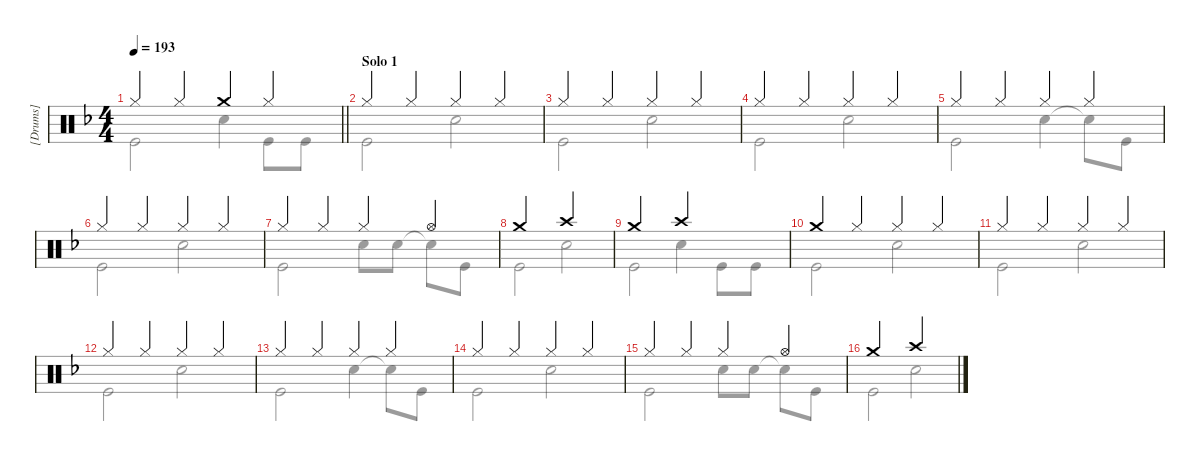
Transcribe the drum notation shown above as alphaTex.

\hideDynamics
\bracketExtendMode groupsimilarinstruments
\firstSystemTrackNameMode fullname
\otherSystemsTrackNameMode fullname
\otherSystemsTrackNameOrientation horizontal
\track ("[Drums]" "Drums") {instrument percussion}
\staff {score}
\articulation defaults
\voice
\ts (4 4)
\tempo 193
\clef neutral
\barLineRight lightlight
\ks f "Hi-Hat (closed)".4{dy ff} "Hi-Hat (closed)".4 "Crash medium (hit)".4 "Hi-Hat (closed)".4
|
\section ("" "Solo 1")
"Hi-Hat (closed)".4 "Hi-Hat (closed)".4 "Hi-Hat (closed)".4 "Hi-Hat (closed)".4 |
"Hi-Hat (closed)".4 "Hi-Hat (closed)".4 "Hi-Hat (closed)".4 "Hi-Hat (closed)".4 |
"Hi-Hat (closed)".4 "Hi-Hat (closed)".4 "Hi-Hat (closed)".4 "Hi-Hat (closed)".4 |
"Hi-Hat (closed)".4 "Hi-Hat (closed)".4 "Hi-Hat (closed)".4 "Hi-Hat (closed)".4 |
"Hi-Hat (closed)".4 "Hi-Hat (closed)".4 "Hi-Hat (closed)".4 "Hi-Hat (closed)".4 |
"Hi-Hat (closed)".4 "Hi-Hat (closed)".4 "Hi-Hat (closed)".4 "Hi-Hat (open)".4 |
"Crash medium (hit)".2 "Crash high (hit)".2 |
"Crash medium (hit)".2 "Crash high (hit)".2 |
"Crash medium (hit)".4 "Hi-Hat (closed)".4 "Hi-Hat (closed)".4 "Hi-Hat (closed)".4 |
"Hi-Hat (closed)".4 "Hi-Hat (closed)".4 "Hi-Hat (closed)".4 "Hi-Hat (closed)".4 |
"Hi-Hat (closed)".4 "Hi-Hat (closed)".4 "Hi-Hat (closed)".4 "Hi-Hat (closed)".4 |
"Hi-Hat (closed)".4 "Hi-Hat (closed)".4 "Hi-Hat (closed)".4 "Hi-Hat (closed)".4 |
"Hi-Hat (closed)".4 "Hi-Hat (closed)".4 "Hi-Hat (closed)".4 "Hi-Hat (closed)".4 |
"Hi-Hat (closed)".4 "Hi-Hat (closed)".4 "Hi-Hat (closed)".4 "Hi-Hat (open)".4 |
"Crash medium (hit)".2 "Crash high (hit)".2
\voice
\clef neutral
\ottava regular
\simile none
\barLineRight lightlight
\ks f "Kick (hit)".2{dy f} "Snare (hit) 2".4 "Kick (hit)".8 "Kick (hit)".8
|
"Kick (hit)".2 "Snare (hit) 2".2 |
"Kick (hit)".2 "Snare (hit) 2".2 |
"Kick (hit)".2 "Snare (hit) 2".2 |
"Kick (hit)".2 "Snare (hit) 2".4 "Snare (hit) 2"{t}.8 "Kick (hit)".8 |
"Kick (hit)".2 "Snare (hit) 2".2 |
"Kick (hit)".2 "Snare (hit) 2".8 "Snare (hit) 2".8 "Snare (hit) 2"{t}.8 "Kick (hit)".8 |
"Kick (hit)".2 "Snare (hit) 2".2 |
"Kick (hit)".2 "Snare (hit) 2".4 "Kick (hit)".8 "Kick (hit)".8 |
"Kick (hit)".2 "Snare (hit) 2".2 |
"Kick (hit)".2 "Snare (hit) 2".2 |
"Kick (hit)".2 "Snare (hit) 2".2 |
"Kick (hit)".2 "Snare (hit) 2".4 "Snare (hit) 2"{t}.8 "Kick (hit)".8 |
"Kick (hit)".2 "Snare (hit) 2".2 |
"Kick (hit)".2 "Snare (hit) 2".8 "Snare (hit) 2".8 "Snare (hit) 2"{t}.8 "Kick (hit)".8 |
"Kick (hit)".2 "Snare (hit) 2".2
